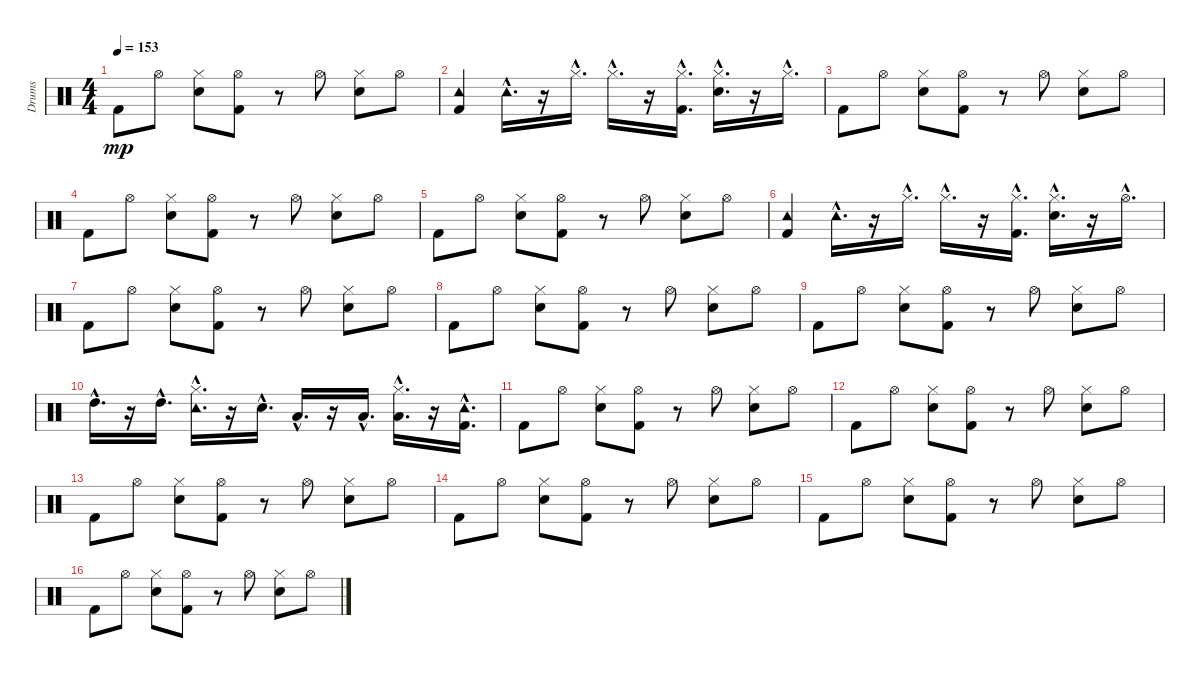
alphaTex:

\track ("Drums" "Drums") {instrument percussion}
\staff {score}
\articulation defaults
\ts (4 4)
\tempo 153
\clef neutral
\ks c "Kick (hit) 2".8{dy mp} "Hi-Hat (open)".8
("Snare (hit) 2" "Hi-Hat (closed)").8 ("Kick (hit) 2" "Hi-Hat (open)").8 r.8 "Hi-Hat (open)".8 ("Snare (hit) 2" "Hi-Hat (closed)").8 "Hi-Hat (open)".8 |
("Kick (hit) 2" "Tambourine (hit)").4 "Tambourine (hit)"{hac}.16{d} r.16 "Hi-Hat (closed)"{hac}.16{d} "Hi-Hat (closed)"{hac}.16{d} r.16 ("Kick (hit) 2"{hac} "Hi-Hat (closed)"{hac}).16{d} ("Snare (hit) 2"{hac} "Hi-Hat (closed)"{hac}).16{d} r.16 "Hi-Hat (closed)"{hac}.16{d} |
"Kick (hit) 2".8 "Hi-Hat (open)".8 ("Snare (hit) 2" "Hi-Hat (closed)").8 ("Kick (hit) 2" "Hi-Hat (open)").8 r.8 "Hi-Hat (open)".8 ("Snare (hit) 2" "Hi-Hat (closed)").8 "Hi-Hat (open)".8 |
"Kick (hit) 2".8 "Hi-Hat (open)".8 ("Snare (hit) 2" "Hi-Hat (closed)").8 ("Kick (hit) 2" "Hi-Hat (open)").8 r.8 "Hi-Hat (open)".8 ("Snare (hit) 2" "Hi-Hat (closed)").8 "Hi-Hat (open)".8 |
"Kick (hit) 2".8 "Hi-Hat (open)".8 ("Snare (hit) 2" "Hi-Hat (closed)").8 ("Kick (hit) 2" "Hi-Hat (open)").8 r.8 "Hi-Hat (open)".8 ("Snare (hit) 2" "Hi-Hat (closed)").8 "Hi-Hat (open)".8 |
("Kick (hit) 2" "Tambourine (hit)").4 "Tambourine (hit)"{hac}.16{d} r.16 "Hi-Hat (closed)"{hac}.16{d} "Hi-Hat (closed)"{hac}.16{d} r.16 ("Kick (hit) 2"{hac} "Hi-Hat (closed)"{hac}).16{d} ("Snare (hit) 2"{hac} "Hi-Hat (closed)"{hac}).16{d} r.16 "Hi-Hat (open)"{hac}.16{d} |
"Kick (hit) 2".8 "Hi-Hat (open)".8 ("Snare (hit) 2" "Hi-Hat (closed)").8 ("Kick (hit) 2" "Hi-Hat (open)").8 r.8 "Hi-Hat (open)".8 ("Snare (hit) 2" "Hi-Hat (closed)").8 "Hi-Hat (open)".8 |
"Kick (hit) 2".8 "Hi-Hat (open)".8 ("Snare (hit) 2" "Hi-Hat (closed)").8 ("Kick (hit) 2" "Hi-Hat (open)").8 r.8 "Hi-Hat (open)".8 ("Snare (hit) 2" "Hi-Hat (closed)").8 "Hi-Hat (open)".8 |
"Kick (hit) 2".8 "Hi-Hat (open)".8 ("Snare (hit) 2" "Hi-Hat (closed)").8 ("Kick (hit) 2" "Hi-Hat (open)").8 r.8 "Hi-Hat (open)".8 ("Snare (hit) 2" "Hi-Hat (closed)").8 "Hi-Hat (open)".8 |
"High Tom (hit)"{hac}.16{d} r.16 "High Tom (hit)"{hac}.16{d} ("Hi-Hat (closed)"{hac} "Tambourine (hit)"{hac}).16{d} r.16 "Snare (hit) 2"{hac}.16{d} "Low Floor Tom (hit)"{hac}.16{d} r.16 "Low Floor Tom (hit)"{hac}.16{d} ("Low Floor Tom (hit)"{hac} "Hi-Hat (closed)"{hac}).16{d} r.16 ("Kick (hit) 2"{hac} "Tambourine (hit)"{hac}).16{d} |
"Kick (hit) 2".8 "Hi-Hat (open)".8 ("Snare (hit) 2" "Hi-Hat (closed)").8 ("Kick (hit) 2" "Hi-Hat (open)").8 r.8 "Hi-Hat (open)".8 ("Snare (hit) 2" "Hi-Hat (closed)").8 "Hi-Hat (open)".8 |
"Kick (hit) 2".8 "Hi-Hat (open)".8 ("Snare (hit) 2" "Hi-Hat (closed)").8 ("Kick (hit) 2" "Hi-Hat (open)").8 r.8 "Hi-Hat (open)".8 ("Snare (hit) 2" "Hi-Hat (closed)").8 "Hi-Hat (open)".8 |
"Kick (hit) 2".8 "Hi-Hat (open)".8 ("Snare (hit) 2" "Hi-Hat (closed)").8 ("Kick (hit) 2" "Hi-Hat (open)").8 r.8 "Hi-Hat (open)".8 ("Snare (hit) 2" "Hi-Hat (closed)").8 "Hi-Hat (open)".8 |
"Kick (hit) 2".8 "Hi-Hat (open)".8 ("Snare (hit) 2" "Hi-Hat (closed)").8 ("Kick (hit) 2" "Hi-Hat (open)").8 r.8 "Hi-Hat (open)".8 ("Snare (hit) 2" "Hi-Hat (closed)").8 "Hi-Hat (open)".8 |
"Kick (hit) 2".8 "Hi-Hat (open)".8 ("Snare (hit) 2" "Hi-Hat (closed)").8 ("Kick (hit) 2" "Hi-Hat (open)").8 r.8 "Hi-Hat (open)".8 ("Snare (hit) 2" "Hi-Hat (closed)").8 "Hi-Hat (open)".8 |
"Kick (hit) 2".8 "Hi-Hat (open)".8 ("Snare (hit) 2" "Hi-Hat (closed)").8 ("Kick (hit) 2" "Hi-Hat (open)").8 r.8 "Hi-Hat (open)".8 ("Snare (hit) 2" "Hi-Hat (closed)").8 "Hi-Hat (open)".8
